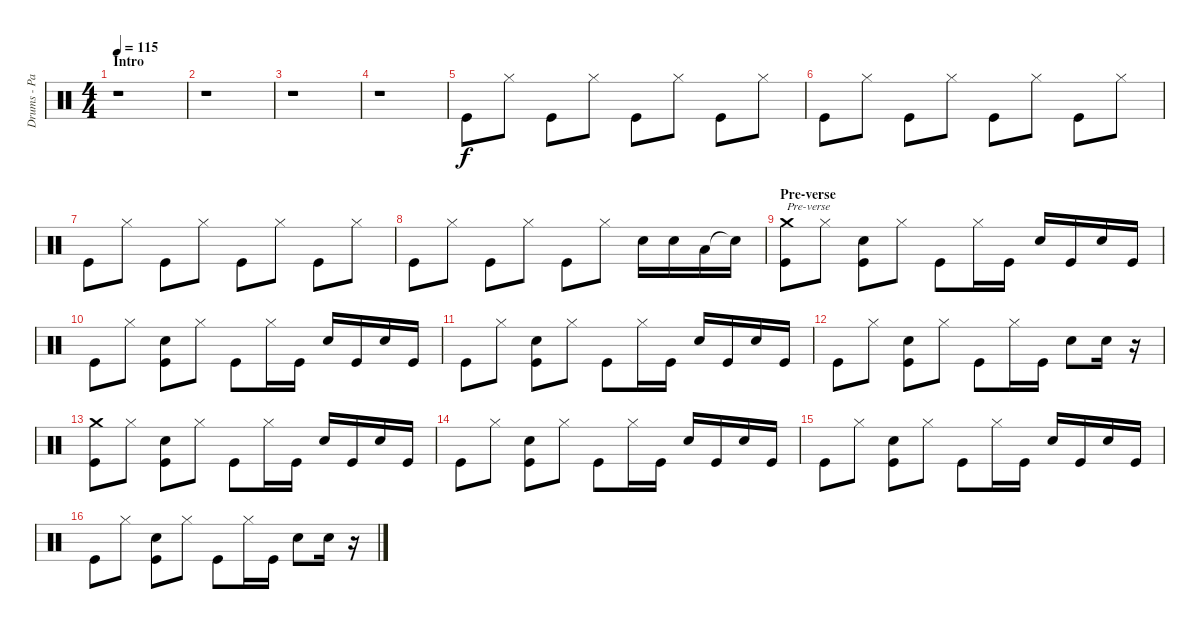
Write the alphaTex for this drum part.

\track ("Drums - Paul Thomson" "Drums - Pa") {instrument percussion}
\staff {score}
\articulation defaults
\ts (4 4)
\section ("" "Intro")
\tempo 115
\clef neutral
\ks c
r.1{dy f} |
r.1 |
r.1 |
r.1 |
"Kick (hit)".8 "Hi-Hat (closed)".8 "Kick (hit)".8 "Hi-Hat (closed)".8 "Kick (hit)".8 "Hi-Hat (closed)".8 "Kick (hit)".8 "Hi-Hat (closed)".8 |
"Kick (hit)".8 "Hi-Hat (closed)".8 "Kick (hit)".8 "Hi-Hat (closed)".8 "Kick (hit)".8 "Hi-Hat (closed)".8 "Kick (hit)".8 "Hi-Hat (closed)".8 |
"Kick (hit)".8 "Hi-Hat (closed)".8 "Kick (hit)".8 "Hi-Hat (closed)".8 "Kick (hit)".8 "Hi-Hat (closed)".8 "Kick (hit)".8 "Hi-Hat (closed)".8 |
"Kick (hit)".8 "Hi-Hat (closed)".8 "Kick (hit)".8 "Hi-Hat (closed)".8 "Kick (hit)".8 "Hi-Hat (closed)".8 "Electric Snare (hit)".16 "Electric Snare (hit)".16 "Low Floor Tom (hit)".16 "Snare (hit)"{t}.16 |
\section ("" "Pre-verse")
("Kick (hit)" "Crash medium (hit)").8{txt "Pre-verse"} "Hi-Hat (closed)".8 ("Kick (hit)" "Electric Snare (hit)").8 "Hi-Hat (closed)".8 "Kick (hit)".8 "Hi-Hat (closed)".16 "Kick (hit)".16 "Electric Snare (hit)".16 "Kick (hit)".16 "Electric Snare (hit)".16 "Kick (hit)".16 |
"Kick (hit)".8 "Hi-Hat (closed)".8 ("Kick (hit)" "Electric Snare (hit)").8 "Hi-Hat (closed)".8 "Kick (hit)".8 "Hi-Hat (closed)".16 "Kick (hit)".16 "Electric Snare (hit)".16 "Kick (hit)".16 "Electric Snare (hit)".16 "Kick (hit)".16 |
"Kick (hit)".8 "Hi-Hat (closed)".8 ("Kick (hit)" "Electric Snare (hit)").8 "Hi-Hat (closed)".8 "Kick (hit)".8 "Hi-Hat (closed)".16 "Kick (hit)".16 "Electric Snare (hit)".16 "Kick (hit)".16 "Electric Snare (hit)".16 "Kick (hit)".16 |
"Kick (hit)".8 "Hi-Hat (closed)".8 ("Kick (hit)" "Electric Snare (hit)").8 "Hi-Hat (closed)".8 "Kick (hit)".8 "Hi-Hat (closed)".16 "Kick (hit)".16 "Electric Snare (hit)".8 "Electric Snare (hit)".16 r.16 |
("Kick (hit)" "Crash medium (hit)").8 "Hi-Hat (closed)".8 ("Kick (hit)" "Electric Snare (hit)").8 "Hi-Hat (closed)".8 "Kick (hit)".8 "Hi-Hat (closed)".16 "Kick (hit)".16 "Electric Snare (hit)".16 "Kick (hit)".16 "Electric Snare (hit)".16 "Kick (hit)".16 |
"Kick (hit)".8 "Hi-Hat (closed)".8 ("Kick (hit)" "Electric Snare (hit)").8 "Hi-Hat (closed)".8 "Kick (hit)".8 "Hi-Hat (closed)".16 "Kick (hit)".16 "Electric Snare (hit)".16 "Kick (hit)".16 "Electric Snare (hit)".16 "Kick (hit)".16 |
"Kick (hit)".8 "Hi-Hat (closed)".8 ("Kick (hit)" "Electric Snare (hit)").8 "Hi-Hat (closed)".8 "Kick (hit)".8 "Hi-Hat (closed)".16 "Kick (hit)".16 "Electric Snare (hit)".16 "Kick (hit)".16 "Electric Snare (hit)".16 "Kick (hit)".16 |
"Kick (hit)".8 "Hi-Hat (closed)".8 ("Kick (hit)" "Electric Snare (hit)").8 "Hi-Hat (closed)".8 "Kick (hit)".8 "Hi-Hat (closed)".16 "Kick (hit)".16 "Electric Snare (hit)".8 "Electric Snare (hit)".16 r.16
